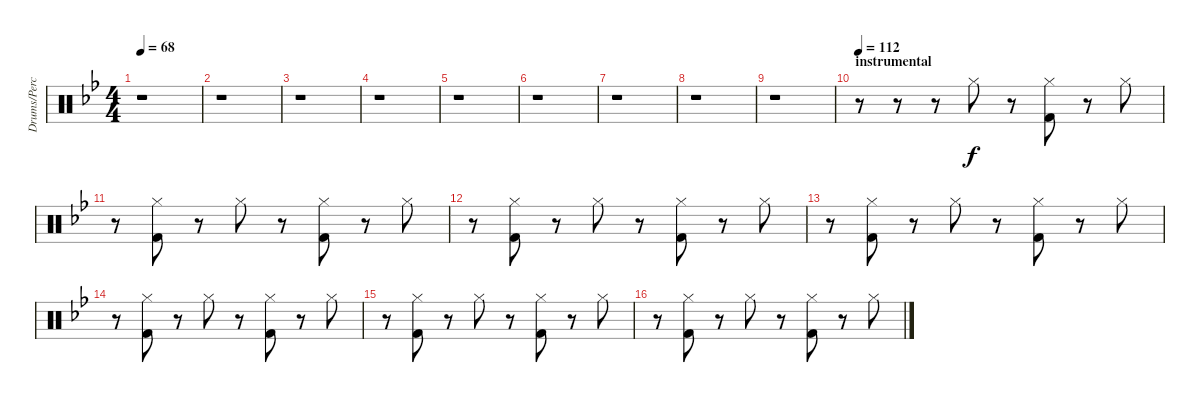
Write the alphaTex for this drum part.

\track ("Drums/Percussion (Bengerg)" "Drums/Perc") {instrument percussion}
\staff {score}
\articulation defaults
\ts (4 4)
\tempo 68
\clef neutral
\ks bb
r.1{dy f} |
r.1 |
r.1 |
r.1 |
r.1 |
r.1 |
r.1 |
r.1 |
r.1 |
\section ("" "instrumental")
\tempo 112
r.8 r.8 r.8 "Hi-Hat (closed)".8 r.8 ("Hi-Hat (closed)" "Kick (hit) 2").8 r.8 "Hi-Hat (closed)".8 |
r.8 ("Hi-Hat (closed)" "Kick (hit) 2").8 r.8 "Hi-Hat (closed)".8 r.8 ("Hi-Hat (closed)" "Kick (hit) 2").8 r.8 "Hi-Hat (closed)".8 |
r.8 ("Hi-Hat (closed)" "Kick (hit) 2").8 r.8 "Hi-Hat (closed)".8 r.8 ("Hi-Hat (closed)" "Kick (hit) 2").8 r.8 "Hi-Hat (closed)".8 |
r.8 ("Hi-Hat (closed)" "Kick (hit) 2").8 r.8 "Hi-Hat (closed)".8 r.8 ("Hi-Hat (closed)" "Kick (hit) 2").8 r.8 "Hi-Hat (closed)".8 |
r.8 ("Hi-Hat (closed)" "Kick (hit) 2").8 r.8 "Hi-Hat (closed)".8 r.8 ("Hi-Hat (closed)" "Kick (hit) 2").8 r.8 "Hi-Hat (closed)".8 |
r.8 ("Hi-Hat (closed)" "Kick (hit) 2").8 r.8 "Hi-Hat (closed)".8 r.8 ("Hi-Hat (closed)" "Kick (hit) 2").8 r.8 "Hi-Hat (closed)".8 |
r.8 ("Hi-Hat (closed)" "Kick (hit) 2").8 r.8 "Hi-Hat (closed)".8 r.8 ("Hi-Hat (closed)" "Kick (hit) 2").8 r.8 "Hi-Hat (closed)".8
